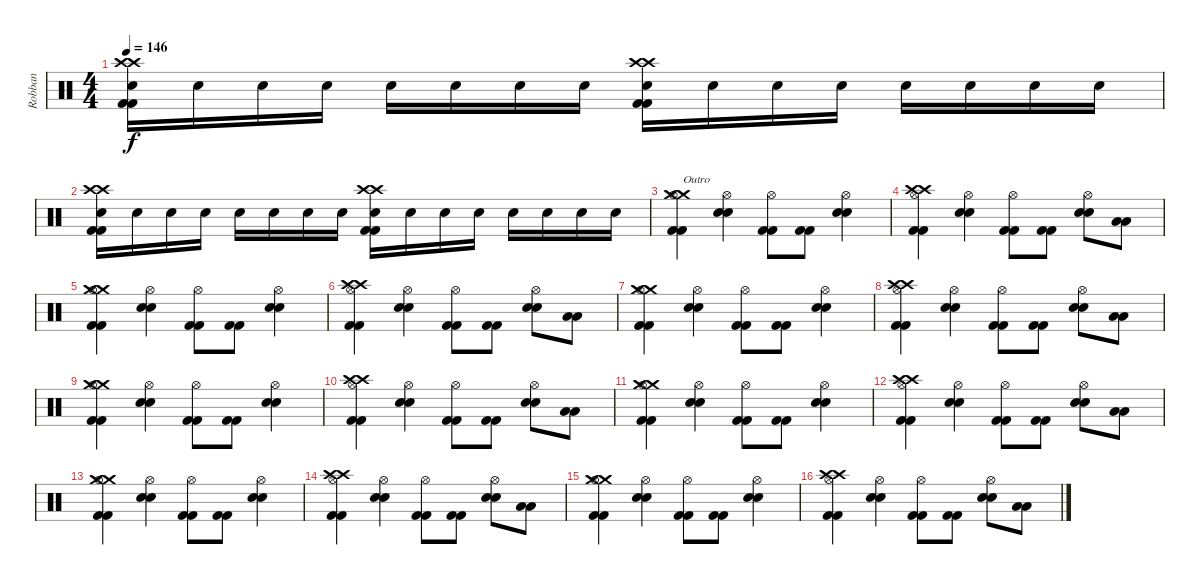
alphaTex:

\track ("Robban" "Robban") {instrument percussion}
\staff {score}
\articulation defaults
\ts (4 4)
\tempo 146
\clef neutral
\ks c
("Crash high (hit)" "Crash high (hit)" "Electric Snare (hit)" "Kick (hit) 2" "Kick (hit) 2").16{dy f} "Electric Snare (hit)".16 "Electric Snare (hit)".16 "Electric Snare (hit)".16 "Electric Snare (hit)".16 "Electric Snare (hit)".16 "Electric Snare (hit)".16 "Electric Snare (hit)".16 ("Crash high (hit)" "Crash high (hit)" "Electric Snare (hit)" "Kick (hit) 2" "Kick (hit) 2").16 "Electric Snare (hit)".16 "Electric Snare (hit)".16 "Electric Snare (hit)".16 "Electric Snare (hit)".16 "Electric Snare (hit)".16 "Electric Snare (hit)".16 "Electric Snare (hit)".16 |
("Crash high (hit)" "Crash high (hit)" "Electric Snare (hit)" "Kick (hit) 2" "Kick (hit) 2").16 "Electric Snare (hit)".16 "Electric Snare (hit)".16 "Electric Snare (hit)".16 "Electric Snare (hit)".16 "Electric Snare (hit)".16 "Electric Snare (hit)".16 "Electric Snare (hit)".16 ("Crash high (hit)" "Crash high (hit)" "Electric Snare (hit)" "Kick (hit) 2" "Kick (hit) 2").16 "Electric Snare (hit)".16 "Electric Snare (hit)".16 "Electric Snare (hit)".16 "Electric Snare (hit)".16 "Electric Snare (hit)".16 "Electric Snare (hit)".16 "Electric Snare (hit)".16 |
("Crash medium (hit)" "Crash medium (hit)" "Hi-Hat (open)" "Kick (hit) 2" "Kick (hit) 2").4{txt "Outro"} ("Hi-Hat (open)" "Electric Snare (hit)" "Electric Snare (hit)").4 ("Hi-Hat (open)" "Kick (hit) 2" "Kick (hit) 2").8 ("Kick (hit) 2" "Kick (hit) 2").8 ("Hi-Hat (open)" "Electric Snare (hit)" "Electric Snare (hit)").4 |
("Crash high (hit)" "Crash high (hit)" "Hi-Hat (open)" "Kick (hit) 2" "Kick (hit) 2").4 ("Hi-Hat (open)" "Electric Snare (hit)" "Electric Snare (hit)").4 ("Hi-Hat (open)" "Kick (hit) 2" "Kick (hit) 2").8 ("Kick (hit) 2" "Kick (hit) 2").8 ("Hi-Hat (open)" "Electric Snare (hit)" "Electric Snare (hit)").8 ("Low Floor Tom (hit)" "Low Floor Tom (hit)").8 |
("Crash medium (hit)" "Crash medium (hit)" "Hi-Hat (open)" "Kick (hit) 2" "Kick (hit) 2").4 ("Hi-Hat (open)" "Electric Snare (hit)" "Electric Snare (hit)").4 ("Hi-Hat (open)" "Kick (hit) 2" "Kick (hit) 2").8 ("Kick (hit) 2" "Kick (hit) 2").8 ("Hi-Hat (open)" "Electric Snare (hit)" "Electric Snare (hit)").4 |
("Crash high (hit)" "Crash high (hit)" "Hi-Hat (open)" "Kick (hit) 2" "Kick (hit) 2").4 ("Hi-Hat (open)" "Electric Snare (hit)" "Electric Snare (hit)").4 ("Hi-Hat (open)" "Kick (hit) 2" "Kick (hit) 2").8 ("Kick (hit) 2" "Kick (hit) 2").8 ("Hi-Hat (open)" "Electric Snare (hit)" "Electric Snare (hit)").8 ("Low Floor Tom (hit)" "Low Floor Tom (hit)").8 |
("Crash medium (hit)" "Crash medium (hit)" "Hi-Hat (open)" "Kick (hit) 2" "Kick (hit) 2").4 ("Hi-Hat (open)" "Electric Snare (hit)" "Electric Snare (hit)").4 ("Hi-Hat (open)" "Kick (hit) 2" "Kick (hit) 2").8 ("Kick (hit) 2" "Kick (hit) 2").8 ("Hi-Hat (open)" "Electric Snare (hit)" "Electric Snare (hit)").4 |
("Crash high (hit)" "Crash high (hit)" "Hi-Hat (open)" "Kick (hit) 2" "Kick (hit) 2").4 ("Hi-Hat (open)" "Electric Snare (hit)" "Electric Snare (hit)").4 ("Hi-Hat (open)" "Kick (hit) 2" "Kick (hit) 2").8 ("Kick (hit) 2" "Kick (hit) 2").8 ("Hi-Hat (open)" "Electric Snare (hit)" "Electric Snare (hit)").8 ("Low Floor Tom (hit)" "Low Floor Tom (hit)").8 |
("Crash medium (hit)" "Crash medium (hit)" "Hi-Hat (open)" "Kick (hit) 2" "Kick (hit) 2").4 ("Hi-Hat (open)" "Electric Snare (hit)" "Electric Snare (hit)").4 ("Hi-Hat (open)" "Kick (hit) 2" "Kick (hit) 2").8 ("Kick (hit) 2" "Kick (hit) 2").8 ("Hi-Hat (open)" "Electric Snare (hit)" "Electric Snare (hit)").4 |
("Crash high (hit)" "Crash high (hit)" "Hi-Hat (open)" "Kick (hit) 2" "Kick (hit) 2").4 ("Hi-Hat (open)" "Electric Snare (hit)" "Electric Snare (hit)").4 ("Hi-Hat (open)" "Kick (hit) 2" "Kick (hit) 2").8 ("Kick (hit) 2" "Kick (hit) 2").8 ("Hi-Hat (open)" "Electric Snare (hit)" "Electric Snare (hit)").8 ("Low Floor Tom (hit)" "Low Floor Tom (hit)").8 |
("Crash medium (hit)" "Crash medium (hit)" "Hi-Hat (open)" "Kick (hit) 2" "Kick (hit) 2").4 ("Hi-Hat (open)" "Electric Snare (hit)" "Electric Snare (hit)").4 ("Hi-Hat (open)" "Kick (hit) 2" "Kick (hit) 2").8 ("Kick (hit) 2" "Kick (hit) 2").8 ("Hi-Hat (open)" "Electric Snare (hit)" "Electric Snare (hit)").4 |
("Crash high (hit)" "Crash high (hit)" "Hi-Hat (open)" "Kick (hit) 2" "Kick (hit) 2").4 ("Hi-Hat (open)" "Electric Snare (hit)" "Electric Snare (hit)").4 ("Hi-Hat (open)" "Kick (hit) 2" "Kick (hit) 2").8 ("Kick (hit) 2" "Kick (hit) 2").8 ("Hi-Hat (open)" "Electric Snare (hit)" "Electric Snare (hit)").8 ("Low Floor Tom (hit)" "Low Floor Tom (hit)").8 |
("Crash medium (hit)" "Crash medium (hit)" "Hi-Hat (open)" "Kick (hit) 2" "Kick (hit) 2").4 ("Hi-Hat (open)" "Electric Snare (hit)" "Electric Snare (hit)").4 ("Hi-Hat (open)" "Kick (hit) 2" "Kick (hit) 2").8 ("Kick (hit) 2" "Kick (hit) 2").8 ("Hi-Hat (open)" "Electric Snare (hit)" "Electric Snare (hit)").4 |
("Crash high (hit)" "Crash high (hit)" "Hi-Hat (open)" "Kick (hit) 2" "Kick (hit) 2").4 ("Hi-Hat (open)" "Electric Snare (hit)" "Electric Snare (hit)").4 ("Hi-Hat (open)" "Kick (hit) 2" "Kick (hit) 2").8 ("Kick (hit) 2" "Kick (hit) 2").8 ("Hi-Hat (open)" "Electric Snare (hit)" "Electric Snare (hit)").8 ("Low Floor Tom (hit)" "Low Floor Tom (hit)").8 |
("Crash medium (hit)" "Crash medium (hit)" "Hi-Hat (open)" "Kick (hit) 2" "Kick (hit) 2").4 ("Hi-Hat (open)" "Electric Snare (hit)" "Electric Snare (hit)").4 ("Hi-Hat (open)" "Kick (hit) 2" "Kick (hit) 2").8 ("Kick (hit) 2" "Kick (hit) 2").8 ("Hi-Hat (open)" "Electric Snare (hit)" "Electric Snare (hit)").4 |
("Crash high (hit)" "Crash high (hit)" "Hi-Hat (open)" "Kick (hit) 2" "Kick (hit) 2").4 ("Hi-Hat (open)" "Electric Snare (hit)" "Electric Snare (hit)").4 ("Hi-Hat (open)" "Kick (hit) 2" "Kick (hit) 2").8 ("Kick (hit) 2" "Kick (hit) 2").8 ("Hi-Hat (open)" "Electric Snare (hit)" "Electric Snare (hit)").8 ("Low Floor Tom (hit)" "Low Floor Tom (hit)").8
